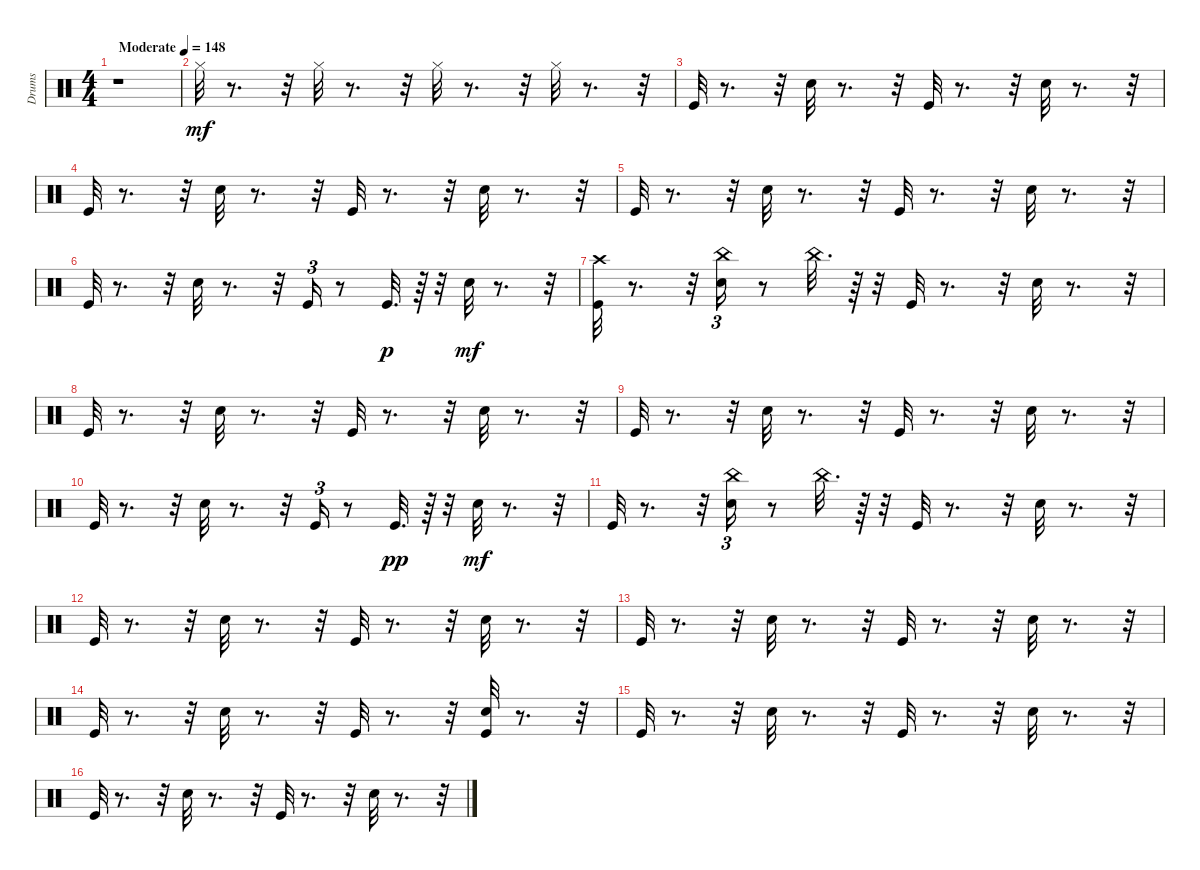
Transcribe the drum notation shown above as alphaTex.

\track ("Drums" "Drums") {instrument percussion}
\staff {score}
\articulation defaults
\ts (4 4)
\tempo (148 "Moderate")
\clef neutral
\ks c
r.1{dy mf} |
"Hi-Hat (closed)".32 r.8{d} r.32 "Hi-Hat (closed)".32 r.8{d} r.32 "Hi-Hat (closed)".32 r.8{d} r.32 "Hi-Hat (closed)".32 r.8{d} r.32 |
"Kick (hit)".32 r.8{d} r.32 "Electric Snare (hit)".32 r.8{d} r.32 "Kick (hit)".32 r.8{d} r.32 "Electric Snare (hit)".32 r.8{d} r.32 |
"Kick (hit)".32 r.8{d} r.32 "Electric Snare (hit)".32 r.8{d} r.32 "Kick (hit)".32 r.8{d} r.32 "Electric Snare (hit)".32 r.8{d} r.32 |
"Kick (hit)".32 r.8{d} r.32 "Electric Snare (hit)".32 r.8{d} r.32 "Kick (hit)".32 r.8{d} r.32 "Electric Snare (hit)".32 r.8{d} r.32 |
"Kick (hit)".32 r.8{d} r.32 "Electric Snare (hit)".32 r.8{d} r.32 "Kick (hit)".16{tu (3 2)} r.8 "Kick (hit)".32{d dy p} r.64 r.32 "Electric Snare (hit)".32{dy mf} r.8{d} r.32 |
("Crash high (hit)" "Kick (hit)").32 r.8{d} r.32 ("China (hit)" "Electric Snare (hit)").16{tu (3 2)} r.8 "China (hit)".32{d} r.64 r.32 "Kick (hit)".32 r.8{d} r.32 "Electric Snare (hit)".32 r.8{d} r.32 |
"Kick (hit)".32 r.8{d} r.32 "Electric Snare (hit)".32 r.8{d} r.32 "Kick (hit)".32 r.8{d} r.32 "Electric Snare (hit)".32 r.8{d} r.32 |
"Kick (hit)".32 r.8{d} r.32 "Electric Snare (hit)".32 r.8{d} r.32 "Kick (hit)".32 r.8{d} r.32 "Electric Snare (hit)".32 r.8{d} r.32 |
"Kick (hit)".32 r.8{d} r.32 "Electric Snare (hit)".32 r.8{d} r.32 "Kick (hit)".16{tu (3 2)} r.8 "Kick (hit)".32{d dy pp} r.64 r.32 "Electric Snare (hit)".32{dy mf} r.8{d} r.32 |
"Kick (hit)".32 r.8{d} r.32 ("China (hit)" "Electric Snare (hit)").16{tu (3 2)} r.8 "China (hit)".32{d} r.64 r.32 "Kick (hit)".32 r.8{d} r.32 "Electric Snare (hit)".32 r.8{d} r.32 |
"Kick (hit)".32 r.8{d} r.32 "Electric Snare (hit)".32 r.8{d} r.32 "Kick (hit)".32 r.8{d} r.32 "Electric Snare (hit)".32 r.8{d} r.32 |
"Kick (hit)".32 r.8{d} r.32 "Electric Snare (hit)".32 r.8{d} r.32 "Kick (hit)".32 r.8{d} r.32 "Electric Snare (hit)".32 r.8{d} r.32 |
"Kick (hit)".32 r.8{d} r.32 "Electric Snare (hit)".32 r.8{d} r.32 "Kick (hit)".32 r.8{d} r.32 ("Kick (hit)" "Electric Snare (hit)").32 r.8{d} r.32 |
"Kick (hit)".32 r.8{d} r.32 "Electric Snare (hit)".32 r.8{d} r.32 "Kick (hit)".32 r.8{d} r.32 "Electric Snare (hit)".32 r.8{d} r.32 |
"Kick (hit)".32 r.8{d} r.32 "Electric Snare (hit)".32 r.8{d} r.32 "Kick (hit)".32 r.8{d} r.32 "Electric Snare (hit)".32 r.8{d} r.32
